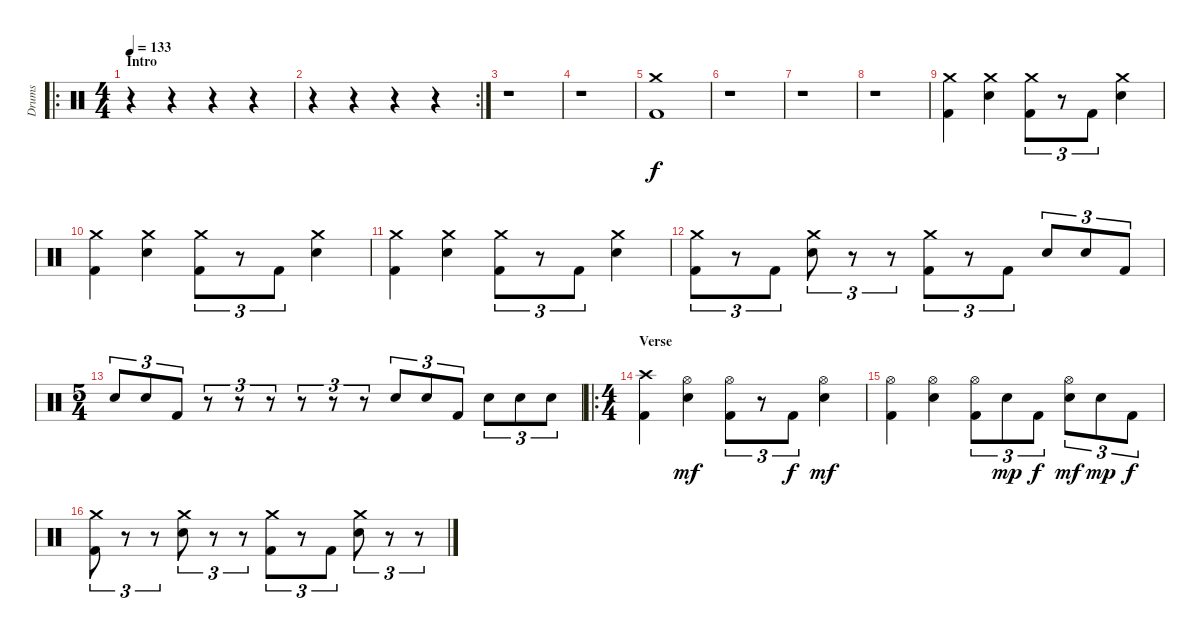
\track ("Drums" "Drums") {instrument percussion}
\staff {score}
\articulation defaults
\ro
\ts (4 4)
\section ("" "Intro")
\tempo 133
\clef neutral
\ks c
r.4{dy f} r.4 r.4 r.4 |
\rc 2
r.4 r.4 r.4 r.4 |
r.1 |
r.1 |
("Crash medium (hit)" "Kick (hit) 2").1 |
r.1 |
r.1 |
r.1 |
("Crash medium (hit)" "Kick (hit) 2").4 ("Crash medium (hit)" "Electric Snare (hit)").4 ("Crash medium (hit)" "Kick (hit) 2").8{tu (3 2)} r.8{tu (3 2)} "Kick (hit) 2".8{tu (3 2)} ("Crash medium (hit)" "Electric Snare (hit)").4 |
("Crash medium (hit)" "Kick (hit) 2").4 ("Crash medium (hit)" "Electric Snare (hit)").4 ("Crash medium (hit)" "Kick (hit) 2").8{tu (3 2)} r.8{tu (3 2)} "Kick (hit) 2".8{tu (3 2)} ("Crash medium (hit)" "Electric Snare (hit)").4 |
("Crash medium (hit)" "Kick (hit) 2").4 ("Crash medium (hit)" "Electric Snare (hit)").4 ("Crash medium (hit)" "Kick (hit) 2").8{tu (3 2)} r.8{tu (3 2)} "Kick (hit) 2".8{tu (3 2)} ("Crash medium (hit)" "Electric Snare (hit)").4 |
("Crash medium (hit)" "Kick (hit) 2").8{tu (3 2)} r.8{tu (3 2)} "Kick (hit) 2".8{tu (3 2)} ("Crash medium (hit)" "Electric Snare (hit)").8{tu (3 2)} r.8{tu (3 2)} r.8{tu (3 2)} ("Crash medium (hit)" "Kick (hit) 2").8{tu (3 2)} r.8{tu (3 2)} "Kick (hit) 2".8{tu (3 2)} "Electric Snare (hit)".8{tu (3 2)} "Electric Snare (hit)".8{tu (3 2)} "Kick (hit) 2".8{tu (3 2)} |
\ts (5 4)
"Electric Snare (hit)".8{tu (3 2)} "Electric Snare (hit)".8{tu (3 2)} "Kick (hit) 2".8{tu (3 2)} r.8{tu (3 2)} r.8{tu (3 2)} r.8{tu (3 2)} r.8{tu (3 2)} r.8{tu (3 2)} r.8{tu (3 2)} "Electric Snare (hit)".8{tu (3 2)} "Electric Snare (hit)".8{tu (3 2)} "Kick (hit) 2".8{tu (3 2)} "Electric Snare (hit)".8{tu (3 2)} "Electric Snare (hit)".8{tu (3 2)} "Electric Snare (hit)".8{tu (3 2)} |
\ro
\ts (4 4)
\section ("" "Verse")
("Crash high (hit)" "Kick (hit) 2").4 ("Hi-Hat (open)" "Electric Snare (hit)").4{dy mf} ("Hi-Hat (open)" "Kick (hit) 2").8{tu (3 2)} r.8{tu (3 2)} "Kick (hit) 2".8{tu (3 2) dy f} ("Hi-Hat (open)" "Electric Snare (hit)").4{dy mf} |
("Hi-Hat (open)" "Kick (hit) 2").4 ("Hi-Hat (open)" "Electric Snare (hit)").4 ("Hi-Hat (open)" "Kick (hit) 2").8{tu (3 2)} "Electric Snare (hit)".8{tu (3 2) dy mp} "Kick (hit) 2".8{tu (3 2) dy f} ("Hi-Hat (open)" "Electric Snare (hit)").8{tu (3 2) dy mf} "Electric Snare (hit)".8{tu (3 2) dy mp} "Kick (hit) 2".8{tu (3 2) dy f} |
("Crash medium (hit)" "Kick (hit) 2").8{tu (3 2)} r.8{tu (3 2)} r.8{tu (3 2)} ("Crash medium (hit)" "Electric Snare (hit)").8{tu (3 2)} r.8{tu (3 2)} r.8{tu (3 2)} ("Crash medium (hit)" "Kick (hit) 2").8{tu (3 2)} r.8{tu (3 2)} "Kick (hit) 2".8{tu (3 2)} ("Crash medium (hit)" "Electric Snare (hit)").8{tu (3 2)} r.8{tu (3 2)} r.8{tu (3 2)}
